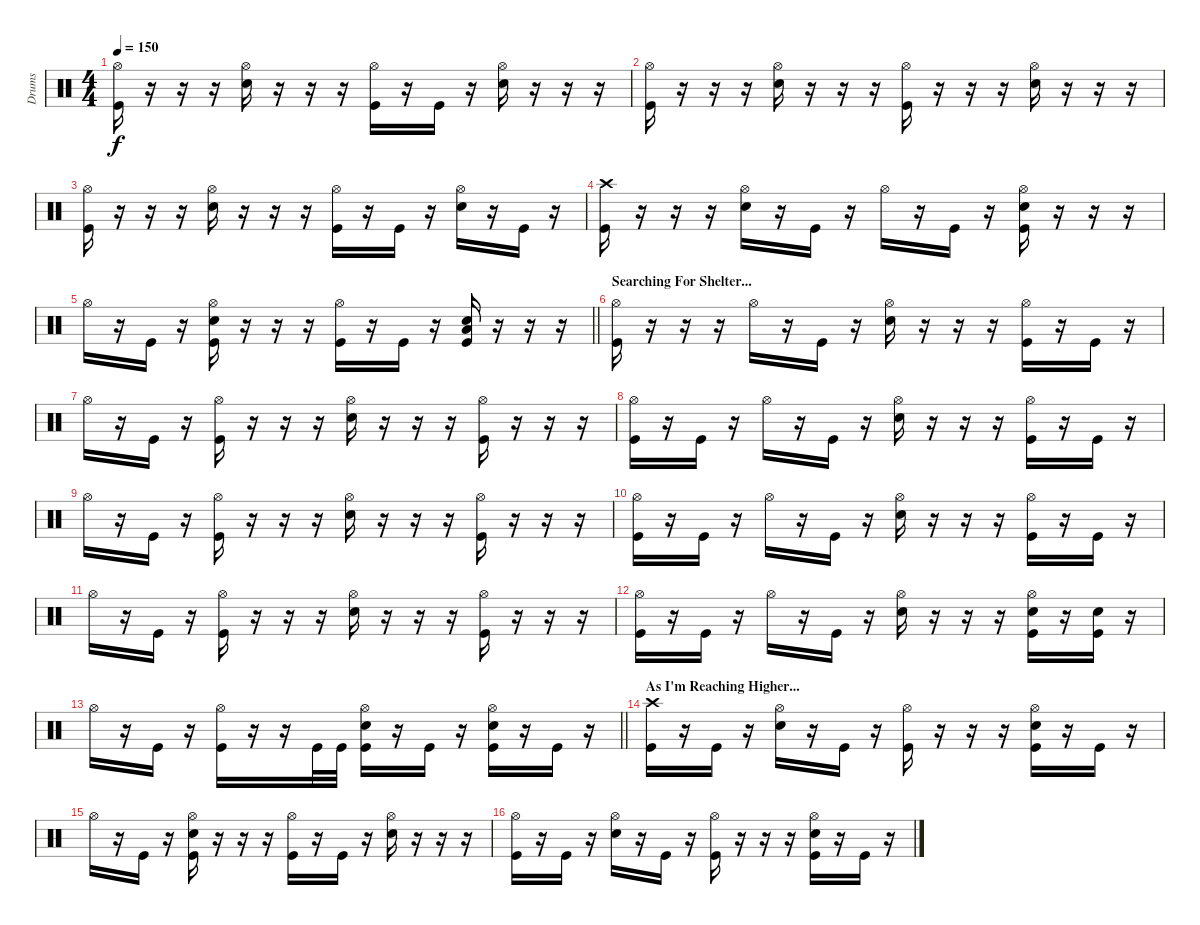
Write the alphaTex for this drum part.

\track ("Drums" "Drums") {instrument percussion}
\staff {score}
\articulation defaults
\ts (4 4)
\tempo 150
\clef neutral
\ks c
("Hi-Hat (open)" "Kick (hit)").16{dy f} r.16 r.16 r.16 ("Hi-Hat (open)" "Snare (hit) 2").16 r.16 r.16 r.16 ("Hi-Hat (open)" "Kick (hit)").16 r.16 "Kick (hit)".16 r.16 ("Hi-Hat (open)" "Snare (hit) 2").16 r.16 r.16 r.16 |
("Hi-Hat (open)" "Kick (hit)").16 r.16 r.16 r.16 ("Hi-Hat (open)" "Snare (hit) 2").16 r.16 r.16 r.16 ("Hi-Hat (open)" "Kick (hit)").16 r.16 r.16 r.16 ("Hi-Hat (open)" "Snare (hit) 2").16 r.16 r.16 r.16 |
("Hi-Hat (open)" "Kick (hit)").16 r.16 r.16 r.16 ("Hi-Hat (open)" "Snare (hit) 2").16 r.16 r.16 r.16 ("Hi-Hat (open)" "Kick (hit)").16 r.16 "Kick (hit)".16 r.16 ("Hi-Hat (open)" "Snare (hit) 2").16 r.16 "Kick (hit)".16 r.16 |
("Crash high (hit)" "Kick (hit)").16 r.16 r.16 r.16 ("Hi-Hat (open)" "Snare (hit) 2").16 r.16 "Kick (hit)".16 r.16 "Hi-Hat (open)".16 r.16 "Kick (hit)".16 r.16 ("Hi-Hat (open)" "Snare (hit) 2" "Kick (hit)").16 r.16 r.16 r.16 |
\barLineRight lightlight "Hi-Hat (open)".16
r.16 "Kick (hit)".16 r.16 ("Hi-Hat (open)" "Snare (hit) 2" "Kick (hit)").16 r.16 r.16 r.16 ("Hi-Hat (open)" "Kick (hit)").16 r.16 "Kick (hit)".16 r.16 ("Low Floor Tom (hit)" "Snare (hit) 2" "Kick (hit)").16 r.16 r.16 r.16 |
\section ("" "Searching For Shelter...")
("Hi-Hat (open)" "Kick (hit)").16 r.16 r.16 r.16 "Hi-Hat (open)".16 r.16 "Kick (hit)".16 r.16 ("Hi-Hat (open)" "Snare (hit) 2").16 r.16 r.16 r.16 ("Hi-Hat (open)" "Kick (hit)").16 r.16 "Kick (hit)".16 r.16 |
"Hi-Hat (open)".16 r.16 "Kick (hit)".16 r.16 ("Hi-Hat (open)" "Kick (hit)").16 r.16 r.16 r.16 ("Hi-Hat (open)" "Snare (hit) 2").16 r.16 r.16 r.16 ("Hi-Hat (open)" "Kick (hit)").16 r.16 r.16 r.16 |
("Hi-Hat (open)" "Kick (hit)").16 r.16 "Kick (hit)".16 r.16 "Hi-Hat (open)".16 r.16 "Kick (hit)".16 r.16 ("Hi-Hat (open)" "Snare (hit) 2").16 r.16 r.16 r.16 ("Hi-Hat (open)" "Kick (hit)").16 r.16 "Kick (hit)".16 r.16 |
"Hi-Hat (open)".16 r.16 "Kick (hit)".16 r.16 ("Hi-Hat (open)" "Kick (hit)").16 r.16 r.16 r.16 ("Hi-Hat (open)" "Snare (hit) 2").16 r.16 r.16 r.16 ("Hi-Hat (open)" "Kick (hit)").16 r.16 r.16 r.16 |
("Hi-Hat (open)" "Kick (hit)").16 r.16 "Kick (hit)".16 r.16 "Hi-Hat (open)".16 r.16 "Kick (hit)".16 r.16 ("Hi-Hat (open)" "Snare (hit) 2").16 r.16 r.16 r.16 ("Hi-Hat (open)" "Kick (hit)").16 r.16 "Kick (hit)".16 r.16 |
"Hi-Hat (open)".16 r.16 "Kick (hit)".16 r.16 ("Hi-Hat (open)" "Kick (hit)").16 r.16 r.16 r.16 ("Hi-Hat (open)" "Snare (hit) 2").16 r.16 r.16 r.16 ("Hi-Hat (open)" "Kick (hit)").16 r.16 r.16 r.16 |
("Hi-Hat (open)" "Kick (hit)").16 r.16 "Kick (hit)".16 r.16 "Hi-Hat (open)".16 r.16 "Kick (hit)".16 r.16 ("Hi-Hat (open)" "Snare (hit) 2").16 r.16 r.16 r.16 ("Hi-Hat (open)" "Snare (hit) 2" "Kick (hit)").16 r.16 ("Snare (hit) 2" "Kick (hit)").16 r.16 |
\barLineRight lightlight "Hi-Hat (open)".16
r.16 "Kick (hit)".16 r.16 ("Hi-Hat (open)" "Kick (hit)").16 r.16 r.16 "Kick (hit)".32 "Kick (hit)".32 ("Hi-Hat (open)" "Snare (hit) 2" "Kick (hit)").16 r.16 "Kick (hit)".16 r.16 ("Hi-Hat (open)" "Snare (hit) 2" "Kick (hit)").16 r.16 "Kick (hit)".16 r.16 |
\section ("" "As I'm Reaching Higher...")
("Crash high (hit)" "Kick (hit)").16 r.16 "Kick (hit)".16 r.16 ("Hi-Hat (open)" "Snare (hit) 2").16 r.16 "Kick (hit)".16 r.16 ("Hi-Hat (open)" "Kick (hit)").16 r.16 r.16 r.16 ("Hi-Hat (open)" "Snare (hit) 2" "Kick (hit)").16 r.16 "Kick (hit)".16 r.16 |
"Hi-Hat (open)".16 r.16 "Kick (hit)".16 r.16 ("Hi-Hat (open)" "Snare (hit) 2" "Kick (hit)").16 r.16 r.16 r.16 ("Hi-Hat (open)" "Kick (hit)").16 r.16 "Kick (hit)".16 r.16 ("Hi-Hat (open)" "Snare (hit) 2").16 r.16 r.16 r.16 |
("Hi-Hat (open)" "Kick (hit)").16 r.16 "Kick (hit)".16 r.16 ("Hi-Hat (open)" "Snare (hit) 2").16 r.16 "Kick (hit)".16 r.16 ("Hi-Hat (open)" "Kick (hit)").16 r.16 r.16 r.16 ("Hi-Hat (open)" "Snare (hit) 2" "Kick (hit)").16 r.16 "Kick (hit)".16 r.16
